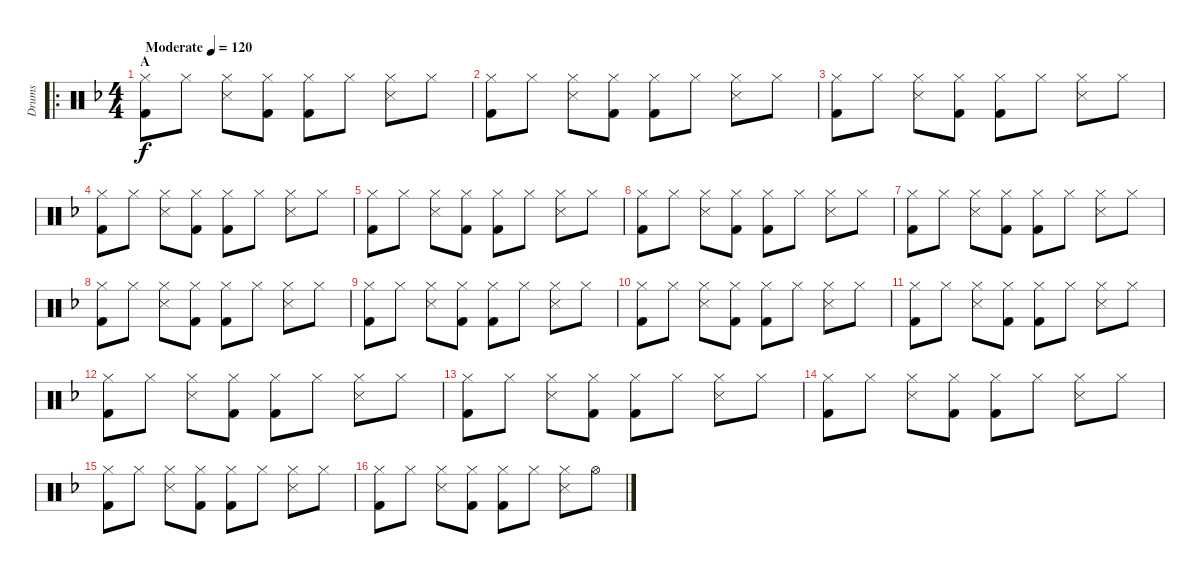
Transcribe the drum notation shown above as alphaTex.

\track ("Drums" "Drums") {instrument percussion}
\staff {score}
\articulation defaults
\ro
\ts (4 4)
\section ("" "A")
\tempo (120 "Moderate")
\clef neutral
\ks f
("Hi-Hat (closed)" "Kick (hit) 2").8{dy f} "Hi-Hat (closed)".8 ("Hi-Hat (closed)" "Snare (side stick) 3").8 ("Hi-Hat (closed)" "Kick (hit) 2").8 ("Hi-Hat (closed)" "Kick (hit) 2").8 "Hi-Hat (closed)".8 ("Hi-Hat (closed)" "Snare (side stick) 3").8 "Hi-Hat (closed)".8 |
("Hi-Hat (closed)" "Kick (hit) 2").8 "Hi-Hat (closed)".8 ("Hi-Hat (closed)" "Snare (side stick) 3").8 ("Hi-Hat (closed)" "Kick (hit) 2").8 ("Hi-Hat (closed)" "Kick (hit) 2").8 "Hi-Hat (closed)".8 ("Hi-Hat (closed)" "Snare (side stick) 3").8 "Hi-Hat (closed)".8 |
("Hi-Hat (closed)" "Kick (hit) 2").8 "Hi-Hat (closed)".8 ("Hi-Hat (closed)" "Snare (side stick) 3").8 ("Hi-Hat (closed)" "Kick (hit) 2").8 ("Hi-Hat (closed)" "Kick (hit) 2").8 "Hi-Hat (closed)".8 ("Hi-Hat (closed)" "Snare (side stick) 3").8 "Hi-Hat (closed)".8 |
("Hi-Hat (closed)" "Kick (hit) 2").8 "Hi-Hat (closed)".8 ("Hi-Hat (closed)" "Snare (side stick) 3").8 ("Hi-Hat (closed)" "Kick (hit) 2").8 ("Hi-Hat (closed)" "Kick (hit) 2").8 "Hi-Hat (closed)".8 ("Hi-Hat (closed)" "Snare (side stick) 3").8 "Hi-Hat (closed)".8 |
("Hi-Hat (closed)" "Kick (hit) 2").8 "Hi-Hat (closed)".8 ("Hi-Hat (closed)" "Snare (side stick) 3").8 ("Hi-Hat (closed)" "Kick (hit) 2").8 ("Hi-Hat (closed)" "Kick (hit) 2").8 "Hi-Hat (closed)".8 ("Hi-Hat (closed)" "Snare (side stick) 3").8 "Hi-Hat (closed)".8 |
("Hi-Hat (closed)" "Kick (hit) 2").8 "Hi-Hat (closed)".8 ("Hi-Hat (closed)" "Snare (side stick) 3").8 ("Hi-Hat (closed)" "Kick (hit) 2").8 ("Hi-Hat (closed)" "Kick (hit) 2").8 "Hi-Hat (closed)".8 ("Hi-Hat (closed)" "Snare (side stick) 3").8 "Hi-Hat (closed)".8 |
("Hi-Hat (closed)" "Kick (hit) 2").8 "Hi-Hat (closed)".8 ("Hi-Hat (closed)" "Snare (side stick) 3").8 ("Hi-Hat (closed)" "Kick (hit) 2").8 ("Hi-Hat (closed)" "Kick (hit) 2").8 "Hi-Hat (closed)".8 ("Hi-Hat (closed)" "Snare (side stick) 3").8 "Hi-Hat (closed)".8 |
("Hi-Hat (closed)" "Kick (hit) 2").8 "Hi-Hat (closed)".8 ("Hi-Hat (closed)" "Snare (side stick) 3").8 ("Hi-Hat (closed)" "Kick (hit) 2").8 ("Hi-Hat (closed)" "Kick (hit) 2").8 "Hi-Hat (closed)".8 ("Hi-Hat (closed)" "Snare (side stick) 3").8 "Hi-Hat (closed)".8 |
("Hi-Hat (closed)" "Kick (hit) 2").8 "Hi-Hat (closed)".8 ("Hi-Hat (closed)" "Snare (side stick) 3").8 ("Hi-Hat (closed)" "Kick (hit) 2").8 ("Hi-Hat (closed)" "Kick (hit) 2").8 "Hi-Hat (closed)".8 ("Hi-Hat (closed)" "Snare (side stick) 3").8 "Hi-Hat (closed)".8 |
("Hi-Hat (closed)" "Kick (hit) 2").8 "Hi-Hat (closed)".8 ("Hi-Hat (closed)" "Snare (side stick) 3").8 ("Hi-Hat (closed)" "Kick (hit) 2").8 ("Hi-Hat (closed)" "Kick (hit) 2").8 "Hi-Hat (closed)".8 ("Hi-Hat (closed)" "Snare (side stick) 3").8 "Hi-Hat (closed)".8 |
("Hi-Hat (closed)" "Kick (hit) 2").8 "Hi-Hat (closed)".8 ("Hi-Hat (closed)" "Snare (side stick) 3").8 ("Hi-Hat (closed)" "Kick (hit) 2").8 ("Hi-Hat (closed)" "Kick (hit) 2").8 "Hi-Hat (closed)".8 ("Hi-Hat (closed)" "Snare (side stick) 3").8 "Hi-Hat (closed)".8 |
("Hi-Hat (closed)" "Kick (hit) 2").8 "Hi-Hat (closed)".8 ("Hi-Hat (closed)" "Snare (side stick) 3").8 ("Hi-Hat (closed)" "Kick (hit) 2").8 ("Hi-Hat (closed)" "Kick (hit) 2").8 "Hi-Hat (closed)".8 ("Hi-Hat (closed)" "Snare (side stick) 3").8 "Hi-Hat (closed)".8 |
("Hi-Hat (closed)" "Kick (hit) 2").8 "Hi-Hat (closed)".8 ("Hi-Hat (closed)" "Snare (side stick) 3").8 ("Hi-Hat (closed)" "Kick (hit) 2").8 ("Hi-Hat (closed)" "Kick (hit) 2").8 "Hi-Hat (closed)".8 ("Hi-Hat (closed)" "Snare (side stick) 3").8 "Hi-Hat (closed)".8 |
("Hi-Hat (closed)" "Kick (hit) 2").8 "Hi-Hat (closed)".8 ("Hi-Hat (closed)" "Snare (side stick) 3").8 ("Hi-Hat (closed)" "Kick (hit) 2").8 ("Hi-Hat (closed)" "Kick (hit) 2").8 "Hi-Hat (closed)".8 ("Hi-Hat (closed)" "Snare (side stick) 3").8 "Hi-Hat (closed)".8 |
("Hi-Hat (closed)" "Kick (hit) 2").8 "Hi-Hat (closed)".8 ("Hi-Hat (closed)" "Snare (side stick) 3").8 ("Hi-Hat (closed)" "Kick (hit) 2").8 ("Hi-Hat (closed)" "Kick (hit) 2").8 "Hi-Hat (closed)".8 ("Hi-Hat (closed)" "Snare (side stick) 3").8 "Hi-Hat (closed)".8 |
("Hi-Hat (closed)" "Kick (hit) 2").8 "Hi-Hat (closed)".8 ("Hi-Hat (closed)" "Snare (side stick) 3").8 ("Hi-Hat (closed)" "Kick (hit) 2").8 ("Hi-Hat (closed)" "Kick (hit) 2").8 "Hi-Hat (closed)".8 ("Hi-Hat (closed)" "Snare (side stick) 3").8 "Hi-Hat (open)".8
